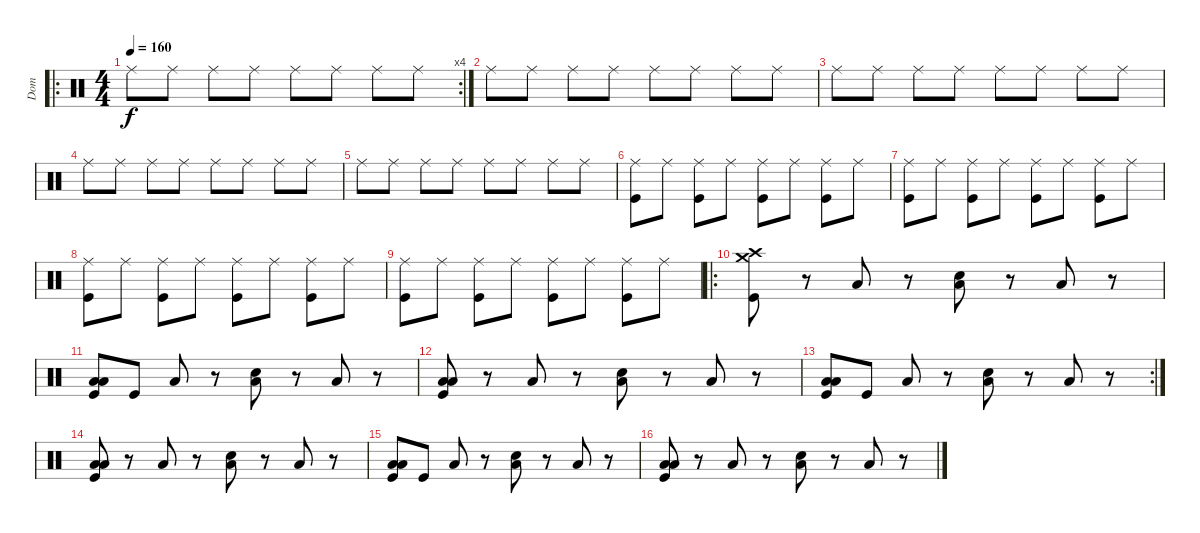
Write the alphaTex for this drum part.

\track ("Dom" "Dom") {instrument percussion}
\staff {score}
\articulation defaults
\ro
\rc 4
\ts (4 4)
\tempo 160
\clef neutral
\ks c "Ride (middle)".8{dy f} "Ride (middle)".8 "Ride (middle)".8 "Ride (middle)".8 "Ride (middle)".8 "Ride (middle)".8 "Ride (middle)".8 "Ride (middle)".8
|
"Ride (middle)".8 "Ride (middle)".8 "Ride (middle)".8 "Ride (middle)".8 "Ride (middle)".8 "Ride (middle)".8 "Ride (middle)".8 "Ride (middle)".8 |
"Ride (middle)".8 "Ride (middle)".8 "Ride (middle)".8 "Ride (middle)".8 "Ride (middle)".8 "Ride (middle)".8 "Ride (middle)".8 "Ride (middle)".8 |
"Ride (middle)".8 "Ride (middle)".8 "Ride (middle)".8 "Ride (middle)".8 "Ride (middle)".8 "Ride (middle)".8 "Ride (middle)".8 "Ride (middle)".8 |
"Ride (middle)".8 "Ride (middle)".8 "Ride (middle)".8 "Ride (middle)".8 "Ride (middle)".8 "Ride (middle)".8 "Ride (middle)".8 "Ride (middle)".8 |
("Ride (middle)" "Kick (hit)").8 "Ride (middle)".8 ("Ride (middle)" "Kick (hit)").8 "Ride (middle)".8 ("Ride (middle)" "Kick (hit)").8 "Ride (middle)".8 ("Ride (middle)" "Kick (hit)").8 "Ride (middle)".8 |
("Ride (middle)" "Kick (hit)").8 "Ride (middle)".8 ("Ride (middle)" "Kick (hit)").8 "Ride (middle)".8 ("Ride (middle)" "Kick (hit)").8 "Ride (middle)".8 ("Ride (middle)" "Kick (hit)").8 "Ride (middle)".8 |
("Ride (middle)" "Kick (hit)").8 "Ride (middle)".8 ("Ride (middle)" "Kick (hit)").8 "Ride (middle)".8 ("Ride (middle)" "Kick (hit)").8 "Ride (middle)".8 ("Ride (middle)" "Kick (hit)").8 "Ride (middle)".8 |
("Ride (middle)" "Kick (hit)").8 "Ride (middle)".8 ("Ride (middle)" "Kick (hit)").8 "Ride (middle)".8 ("Ride (middle)" "Kick (hit)").8 "Ride (middle)".8 ("Ride (middle)" "Kick (hit)").8 "Ride (middle)".8 |
\ro
("Crash high (hit)" "Crash medium (hit)" "Kick (hit)").8 r.8 "Low Floor Tom (hit)".8 r.8 ("Low Floor Tom (hit)" "Snare (hit) 2").8 r.8 "Low Floor Tom (hit)".8 r.8 |
("Low Floor Tom (hit)" "Low Tom (hit)" "Kick (hit)").8 "Kick (hit)".8 "Low Floor Tom (hit)".8 r.8 ("Low Floor Tom (hit)" "Snare (hit) 2").8 r.8 "Low Floor Tom (hit)".8 r.8 |
("Low Floor Tom (hit)" "Low Tom (hit)" "Kick (hit)").8 r.8 "Low Floor Tom (hit)".8 r.8 ("Low Floor Tom (hit)" "Snare (hit) 2").8 r.8 "Low Floor Tom (hit)".8 r.8 |
\rc 2
("Low Floor Tom (hit)" "Low Tom (hit)" "Kick (hit)").8 "Kick (hit)".8 "Low Floor Tom (hit)".8 r.8 ("Low Floor Tom (hit)" "Snare (hit) 2").8 r.8 "Low Floor Tom (hit)".8 r.8 |
("Low Floor Tom (hit)" "Low Tom (hit)" "Kick (hit)").8 r.8 "Low Floor Tom (hit)".8 r.8 ("Low Floor Tom (hit)" "Snare (hit) 2").8 r.8 "Low Floor Tom (hit)".8 r.8 |
("Low Floor Tom (hit)" "Low Tom (hit)" "Kick (hit)").8 "Kick (hit)".8 "Low Floor Tom (hit)".8 r.8 ("Low Floor Tom (hit)" "Snare (hit) 2").8 r.8 "Low Floor Tom (hit)".8 r.8 |
("Low Floor Tom (hit)" "Low Tom (hit)" "Kick (hit)").8 r.8 "Low Floor Tom (hit)".8 r.8 ("Low Floor Tom (hit)" "Snare (hit) 2").8 r.8 "Low Floor Tom (hit)".8 r.8
